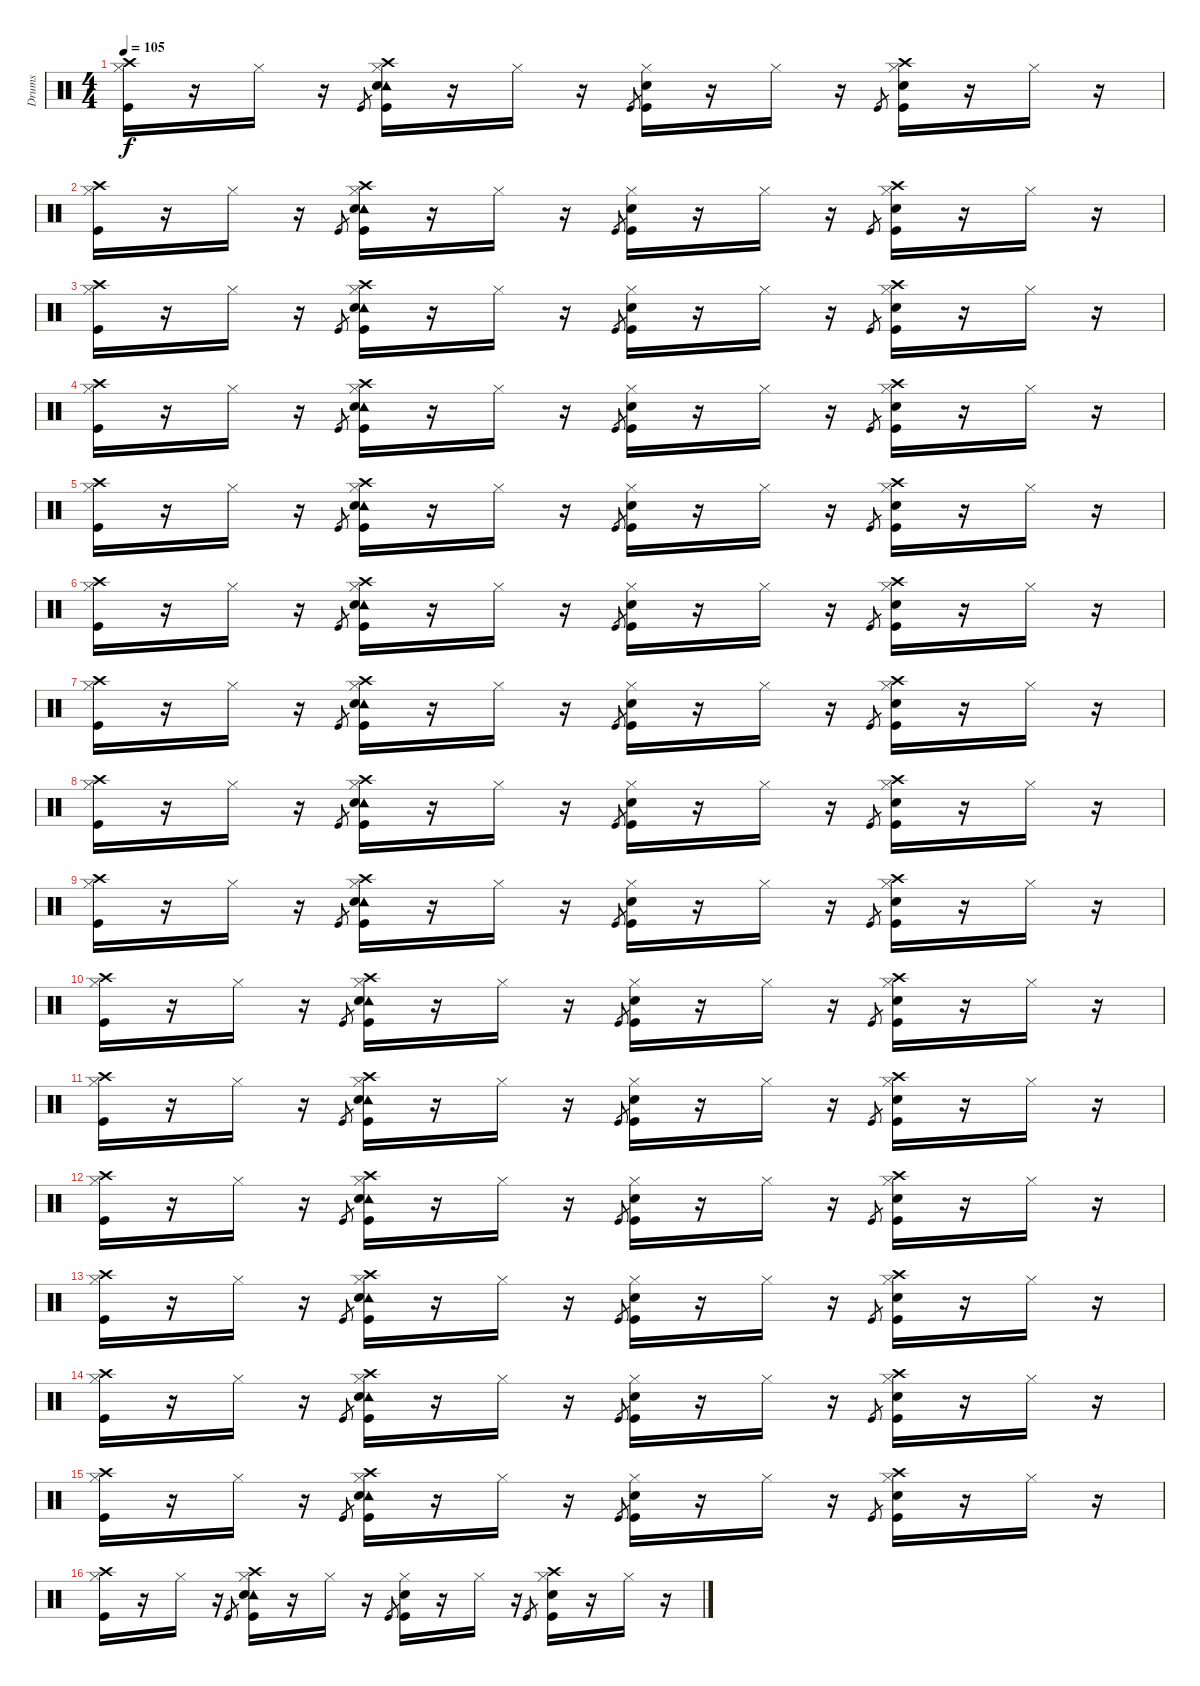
\track ("Drums" "Drums") {instrument percussion}
\staff {score}
\articulation defaults
\ts (4 4)
\tempo 105
\clef neutral
\ks c
("Crash high (hit)" "Hi-Hat (closed)" "Kick (hit)").16{dy f} r.16 "Hi-Hat (closed)".16 r.16 "Kick (hit)".8{gr} ("Crash high (hit)" "Hi-Hat (closed)" "Tambourine (hit)" "Snare (hit) 2" "Kick (hit)").16 r.16 "Hi-Hat (closed)".16 r.16 "Kick (hit)".8{gr} ("Hi-Hat (closed)" "Snare (hit) 2" "Kick (hit)").16 r.16 "Hi-Hat (closed)".16 r.16 "Kick (hit)".8{gr} ("Crash high (hit)" "Hi-Hat (closed)" "Snare (hit) 2" "Kick (hit)").16 r.16 "Hi-Hat (closed)".16 r.16 |
("Crash high (hit)" "Hi-Hat (closed)" "Kick (hit)").16 r.16 "Hi-Hat (closed)".16 r.16 "Kick (hit)".8{gr} ("Crash high (hit)" "Hi-Hat (closed)" "Tambourine (hit)" "Snare (hit) 2" "Kick (hit)").16 r.16 "Hi-Hat (closed)".16 r.16 "Kick (hit)".8{gr} ("Hi-Hat (closed)" "Snare (hit) 2" "Kick (hit)").16 r.16 "Hi-Hat (closed)".16 r.16 "Kick (hit)".8{gr} ("Crash high (hit)" "Hi-Hat (closed)" "Snare (hit) 2" "Kick (hit)").16 r.16 "Hi-Hat (closed)".16 r.16 |
("Crash high (hit)" "Hi-Hat (closed)" "Kick (hit)").16 r.16 "Hi-Hat (closed)".16 r.16 "Kick (hit)".8{gr} ("Crash high (hit)" "Hi-Hat (closed)" "Tambourine (hit)" "Snare (hit) 2" "Kick (hit)").16 r.16 "Hi-Hat (closed)".16 r.16 "Kick (hit)".8{gr} ("Hi-Hat (closed)" "Snare (hit) 2" "Kick (hit)").16 r.16 "Hi-Hat (closed)".16 r.16 "Kick (hit)".8{gr} ("Crash high (hit)" "Hi-Hat (closed)" "Snare (hit) 2" "Kick (hit)").16 r.16 "Hi-Hat (closed)".16 r.16 |
("Crash high (hit)" "Hi-Hat (closed)" "Kick (hit)").16 r.16 "Hi-Hat (closed)".16 r.16 "Kick (hit)".8{gr} ("Crash high (hit)" "Hi-Hat (closed)" "Tambourine (hit)" "Snare (hit) 2" "Kick (hit)").16 r.16 "Hi-Hat (closed)".16 r.16 "Kick (hit)".8{gr} ("Hi-Hat (closed)" "Snare (hit) 2" "Kick (hit)").16 r.16 "Hi-Hat (closed)".16 r.16 "Kick (hit)".8{gr} ("Crash high (hit)" "Hi-Hat (closed)" "Snare (hit) 2" "Kick (hit)").16 r.16 "Hi-Hat (closed)".16 r.16 |
("Crash high (hit)" "Hi-Hat (closed)" "Kick (hit)").16 r.16 "Hi-Hat (closed)".16 r.16 "Kick (hit)".8{gr} ("Crash high (hit)" "Hi-Hat (closed)" "Tambourine (hit)" "Snare (hit) 2" "Kick (hit)").16 r.16 "Hi-Hat (closed)".16 r.16 "Kick (hit)".8{gr} ("Hi-Hat (closed)" "Snare (hit) 2" "Kick (hit)").16 r.16 "Hi-Hat (closed)".16 r.16 "Kick (hit)".8{gr} ("Crash high (hit)" "Hi-Hat (closed)" "Snare (hit) 2" "Kick (hit)").16 r.16 "Hi-Hat (closed)".16 r.16 |
("Crash high (hit)" "Hi-Hat (closed)" "Kick (hit)").16 r.16 "Hi-Hat (closed)".16 r.16 "Kick (hit)".8{gr} ("Crash high (hit)" "Hi-Hat (closed)" "Tambourine (hit)" "Snare (hit) 2" "Kick (hit)").16 r.16 "Hi-Hat (closed)".16 r.16 "Kick (hit)".8{gr} ("Hi-Hat (closed)" "Snare (hit) 2" "Kick (hit)").16 r.16 "Hi-Hat (closed)".16 r.16 "Kick (hit)".8{gr} ("Crash high (hit)" "Hi-Hat (closed)" "Snare (hit) 2" "Kick (hit)").16 r.16 "Hi-Hat (closed)".16 r.16 |
("Crash high (hit)" "Hi-Hat (closed)" "Kick (hit)").16 r.16 "Hi-Hat (closed)".16 r.16 "Kick (hit)".8{gr} ("Crash high (hit)" "Hi-Hat (closed)" "Tambourine (hit)" "Snare (hit) 2" "Kick (hit)").16 r.16 "Hi-Hat (closed)".16 r.16 "Kick (hit)".8{gr} ("Hi-Hat (closed)" "Snare (hit) 2" "Kick (hit)").16 r.16 "Hi-Hat (closed)".16 r.16 "Kick (hit)".8{gr} ("Crash high (hit)" "Hi-Hat (closed)" "Snare (hit) 2" "Kick (hit)").16 r.16 "Hi-Hat (closed)".16 r.16 |
("Crash high (hit)" "Hi-Hat (closed)" "Kick (hit)").16 r.16 "Hi-Hat (closed)".16 r.16 "Kick (hit)".8{gr} ("Crash high (hit)" "Hi-Hat (closed)" "Tambourine (hit)" "Snare (hit) 2" "Kick (hit)").16 r.16 "Hi-Hat (closed)".16 r.16 "Kick (hit)".8{gr} ("Hi-Hat (closed)" "Snare (hit) 2" "Kick (hit)").16 r.16 "Hi-Hat (closed)".16 r.16 "Kick (hit)".8{gr} ("Crash high (hit)" "Hi-Hat (closed)" "Snare (hit) 2" "Kick (hit)").16 r.16 "Hi-Hat (closed)".16 r.16 |
("Crash high (hit)" "Hi-Hat (closed)" "Kick (hit)").16 r.16 "Hi-Hat (closed)".16 r.16 "Kick (hit)".8{gr} ("Crash high (hit)" "Hi-Hat (closed)" "Tambourine (hit)" "Snare (hit) 2" "Kick (hit)").16 r.16 "Hi-Hat (closed)".16 r.16 "Kick (hit)".8{gr} ("Hi-Hat (closed)" "Snare (hit) 2" "Kick (hit)").16 r.16 "Hi-Hat (closed)".16 r.16 "Kick (hit)".8{gr} ("Crash high (hit)" "Hi-Hat (closed)" "Snare (hit) 2" "Kick (hit)").16 r.16 "Hi-Hat (closed)".16 r.16 |
("Crash high (hit)" "Hi-Hat (closed)" "Kick (hit)").16 r.16 "Hi-Hat (closed)".16 r.16 "Kick (hit)".8{gr} ("Crash high (hit)" "Hi-Hat (closed)" "Tambourine (hit)" "Snare (hit) 2" "Kick (hit)").16 r.16 "Hi-Hat (closed)".16 r.16 "Kick (hit)".8{gr} ("Hi-Hat (closed)" "Snare (hit) 2" "Kick (hit)").16 r.16 "Hi-Hat (closed)".16 r.16 "Kick (hit)".8{gr} ("Crash high (hit)" "Hi-Hat (closed)" "Snare (hit) 2" "Kick (hit)").16 r.16 "Hi-Hat (closed)".16 r.16 |
("Crash high (hit)" "Hi-Hat (closed)" "Kick (hit)").16{volume 10} r.16 "Hi-Hat (closed)".16 r.16 "Kick (hit)".8{gr} ("Crash high (hit)" "Hi-Hat (closed)" "Tambourine (hit)" "Snare (hit) 2" "Kick (hit)").16 r.16 "Hi-Hat (closed)".16 r.16 "Kick (hit)".8{gr} ("Hi-Hat (closed)" "Snare (hit) 2" "Kick (hit)").16 r.16 "Hi-Hat (closed)".16 r.16 "Kick (hit)".8{gr} ("Crash high (hit)" "Hi-Hat (closed)" "Snare (hit) 2" "Kick (hit)").16 r.16 "Hi-Hat (closed)".16 r.16 |
("Crash high (hit)" "Hi-Hat (closed)" "Kick (hit)").16 r.16 "Hi-Hat (closed)".16 r.16 "Kick (hit)".8{gr} ("Crash high (hit)" "Hi-Hat (closed)" "Tambourine (hit)" "Snare (hit) 2" "Kick (hit)").16 r.16 "Hi-Hat (closed)".16 r.16 "Kick (hit)".8{gr} ("Hi-Hat (closed)" "Snare (hit) 2" "Kick (hit)").16 r.16 "Hi-Hat (closed)".16 r.16 "Kick (hit)".8{gr} ("Crash high (hit)" "Hi-Hat (closed)" "Snare (hit) 2" "Kick (hit)").16 r.16 "Hi-Hat (closed)".16 r.16 |
("Crash high (hit)" "Hi-Hat (closed)" "Kick (hit)").16{volume 8} r.16 "Hi-Hat (closed)".16 r.16 "Kick (hit)".8{gr} ("Crash high (hit)" "Hi-Hat (closed)" "Tambourine (hit)" "Snare (hit) 2" "Kick (hit)").16 r.16 "Hi-Hat (closed)".16 r.16 "Kick (hit)".8{gr} ("Hi-Hat (closed)" "Snare (hit) 2" "Kick (hit)").16 r.16 "Hi-Hat (closed)".16 r.16 "Kick (hit)".8{gr} ("Crash high (hit)" "Hi-Hat (closed)" "Snare (hit) 2" "Kick (hit)").16 r.16 "Hi-Hat (closed)".16 r.16 |
("Crash high (hit)" "Hi-Hat (closed)" "Kick (hit)").16 r.16 "Hi-Hat (closed)".16 r.16 "Kick (hit)".8{gr} ("Crash high (hit)" "Hi-Hat (closed)" "Tambourine (hit)" "Snare (hit) 2" "Kick (hit)").16 r.16 "Hi-Hat (closed)".16 r.16 "Kick (hit)".8{gr} ("Hi-Hat (closed)" "Snare (hit) 2" "Kick (hit)").16 r.16 "Hi-Hat (closed)".16 r.16 "Kick (hit)".8{gr} ("Crash high (hit)" "Hi-Hat (closed)" "Snare (hit) 2" "Kick (hit)").16 r.16 "Hi-Hat (closed)".16 r.16 |
("Crash high (hit)" "Hi-Hat (closed)" "Kick (hit)").16{volume 6} r.16 "Hi-Hat (closed)".16 r.16 "Kick (hit)".8{gr} ("Crash high (hit)" "Hi-Hat (closed)" "Tambourine (hit)" "Snare (hit) 2" "Kick (hit)").16 r.16 "Hi-Hat (closed)".16 r.16 "Kick (hit)".8{gr} ("Hi-Hat (closed)" "Snare (hit) 2" "Kick (hit)").16 r.16 "Hi-Hat (closed)".16 r.16 "Kick (hit)".8{gr} ("Crash high (hit)" "Hi-Hat (closed)" "Snare (hit) 2" "Kick (hit)").16 r.16 "Hi-Hat (closed)".16 r.16 |
("Crash high (hit)" "Hi-Hat (closed)" "Kick (hit)").16 r.16 "Hi-Hat (closed)".16 r.16 "Kick (hit)".8{gr} ("Crash high (hit)" "Hi-Hat (closed)" "Tambourine (hit)" "Snare (hit) 2" "Kick (hit)").16 r.16 "Hi-Hat (closed)".16 r.16 "Kick (hit)".8{gr} ("Hi-Hat (closed)" "Snare (hit) 2" "Kick (hit)").16 r.16 "Hi-Hat (closed)".16 r.16 "Kick (hit)".8{gr} ("Crash high (hit)" "Hi-Hat (closed)" "Snare (hit) 2" "Kick (hit)").16 r.16 "Hi-Hat (closed)".16 r.16
